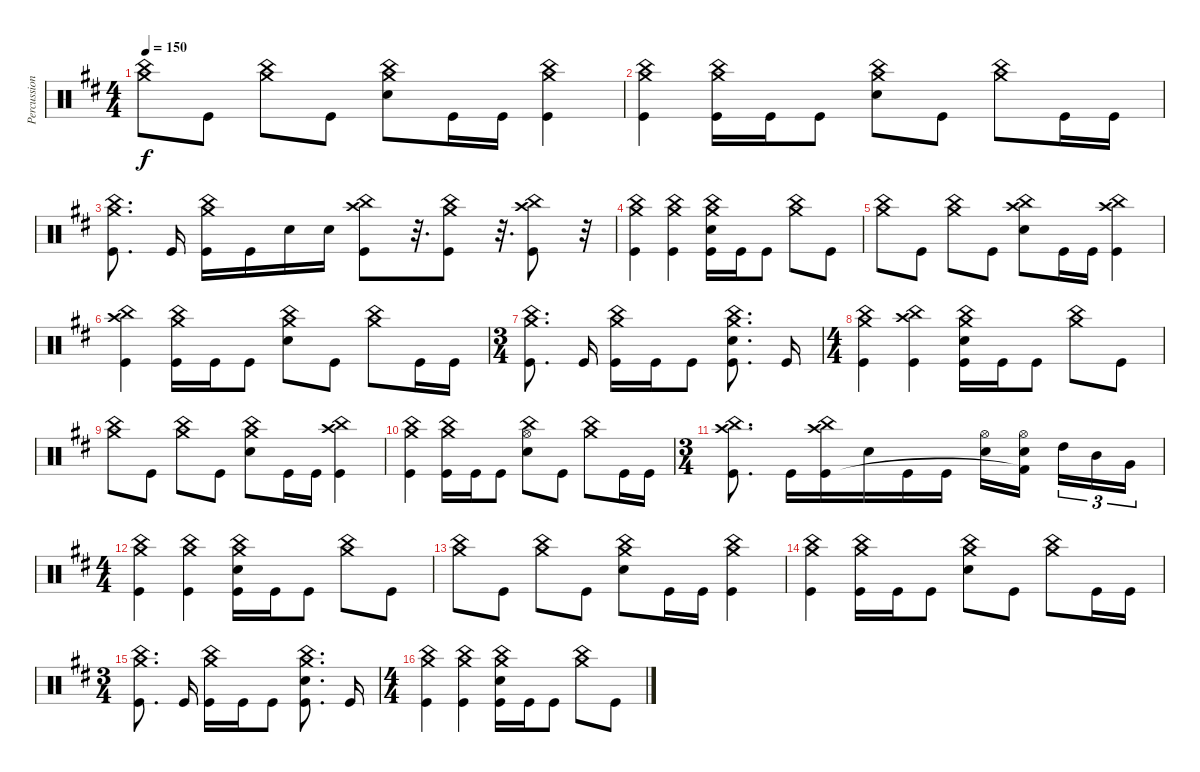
\track ("Percussion" "Percussion") {instrument percussion}
\staff {score}
\articulation defaults
\ts (4 4)
\tempo 150
\clef neutral
\ks bminor
("Crash medium (hit)" "China (hit)").8{dy f} "Kick (hit)".8 ("Crash medium (hit)" "China (hit)").8 "Kick (hit)".8 ("Crash medium (hit)" "China (hit)" "Electric Snare (hit)").8 "Kick (hit)".16 "Kick (hit)".16 ("Crash medium (hit)" "China (hit)" "Kick (hit)").4 |
("Crash medium (hit)" "China (hit)" "Kick (hit)").4 ("Crash medium (hit)" "China (hit)" "Kick (hit)").16 "Kick (hit)".16 "Kick (hit)".8 ("Crash medium (hit)" "China (hit)" "Electric Snare (hit)").8 "Kick (hit)".8 ("Crash medium (hit)" "China (hit)").8 "Kick (hit)".16 "Kick (hit)".16 |
("Crash medium (hit)" "China (hit)" "Kick (hit)").8{d beam split} "Kick (hit)".16 ("Crash medium (hit)" "China (hit)" "Kick (hit)").16 "Kick (hit)".16 "Electric Snare (hit)".16 "Electric Snare (hit)".16 ("Crash high (hit)" "China (hit)" "Kick (hit)").8 r.32{d} ("Crash medium (hit)" "China (hit)" "Kick (hit)").8 r.32{d} ("Crash high (hit)" "China (hit)" "Kick (hit)").8 r.32 |
("Crash medium (hit)" "China (hit)" "Kick (hit)").4 ("Crash medium (hit)" "China (hit)" "Kick (hit)").4 ("Crash medium (hit)" "China (hit)" "Electric Snare (hit)" "Kick (hit)").16 "Kick (hit)".16 "Kick (hit)".8 ("Crash medium (hit)" "China (hit)").8 "Kick (hit)".8 |
("Crash medium (hit)" "China (hit)").8 "Kick (hit)".8 ("Crash medium (hit)" "China (hit)").8 "Kick (hit)".8 ("Crash high (hit)" "China (hit)" "Electric Snare (hit)").8 "Kick (hit)".16 "Kick (hit)".16 ("Crash high (hit)" "China (hit)" "Kick (hit)").4 |
("Crash high (hit)" "China (hit)" "Kick (hit)").4 ("Crash medium (hit)" "China (hit)" "Kick (hit)").16 "Kick (hit)".16 "Kick (hit)".8 ("Crash medium (hit)" "China (hit)" "Electric Snare (hit)").8 "Kick (hit)".8 ("Crash medium (hit)" "China (hit)").8 "Kick (hit)".16 "Kick (hit)".16 |
\ts (3 4)
("Crash medium (hit)" "China (hit)" "Kick (hit)").8{d beam split} "Kick (hit)".16 ("Crash medium (hit)" "China (hit)" "Kick (hit)").16 "Kick (hit)".16 "Kick (hit)".8 ("Crash medium (hit)" "China (hit)" "Electric Snare (hit)" "Kick (hit)").8{d beam split} "Kick (hit)".16 |
\ts (4 4)
("Crash medium (hit)" "China (hit)" "Kick (hit)").4 ("Crash high (hit)" "China (hit)" "Kick (hit)").4 ("Crash medium (hit)" "China (hit)" "Electric Snare (hit)" "Kick (hit)").16 "Kick (hit)".16 "Kick (hit)".8 ("Crash medium (hit)" "China (hit)").8 "Kick (hit)".8 |
("Crash medium (hit)" "China (hit)").8 "Kick (hit)".8 ("Crash medium (hit)" "China (hit)").8 "Kick (hit)".8 ("Crash medium (hit)" "China (hit)" "Electric Snare (hit)").8 "Kick (hit)".16 "Kick (hit)".16 ("Crash high (hit)" "China (hit)" "Kick (hit)").4 |
("Crash medium (hit)" "China (hit)" "Kick (hit)").4 ("Crash medium (hit)" "China (hit)" "Kick (hit)").16 "Kick (hit)".16 "Kick (hit)".8 ("China (hit)" "Hi-Hat (open)" "Electric Snare (hit)").8 "Kick (hit)".8 ("China (hit)" "Crash medium (hit)").8 "Kick (hit)".16 "Kick (hit)".16 |
\ts (3 4)
("China (hit)" "Crash high (hit)" "Kick (hit)").8{d beam split} "Kick (hit)".16{beam merge} ("China (hit)" "Crash high (hit)" "Kick (hit)").16 "Electric Snare (hit)".16 "Kick (hit)".16 "Kick (hit)".16 ("Hi-Hat (open)" "Electric Snare (hit)").16 ("Hi-Hat (open)" "Electric Snare (hit)" "Kick (hit) 2"{t}).16{beam split} "High Tom (hit)".16{tu (3 2) beam merge} "Mid Tom (hit)".16{tu (3 2)} "Very Low Tom (hit)".16{tu (3 2)} |
\ts (4 4)
("Crash medium (hit)" "China (hit)" "Kick (hit)").4 ("Crash medium (hit)" "China (hit)" "Kick (hit)").4 ("Crash medium (hit)" "China (hit)" "Electric Snare (hit)" "Kick (hit)").16 "Kick (hit)".16 "Kick (hit)".8 ("Crash medium (hit)" "China (hit)").8 "Kick (hit)".8 |
("Crash medium (hit)" "China (hit)").8 "Kick (hit)".8 ("Crash medium (hit)" "China (hit)").8 "Kick (hit)".8 ("Crash medium (hit)" "China (hit)" "Electric Snare (hit)").8 "Kick (hit)".16 "Kick (hit)".16 ("Crash medium (hit)" "China (hit)" "Kick (hit)").4 |
("Crash medium (hit)" "China (hit)" "Kick (hit)").4 ("Crash medium (hit)" "China (hit)" "Kick (hit)").16 "Kick (hit)".16 "Kick (hit)".8 ("Crash medium (hit)" "China (hit)" "Electric Snare (hit)").8 "Kick (hit)".8 ("Crash medium (hit)" "China (hit)").8 "Kick (hit)".16 "Kick (hit)".16 |
\ts (3 4)
("Crash medium (hit)" "China (hit)" "Kick (hit)").8{d beam split} "Kick (hit)".16 ("Crash medium (hit)" "China (hit)" "Kick (hit)").16 "Kick (hit)".16 "Kick (hit)".8 ("Crash medium (hit)" "China (hit)" "Electric Snare (hit)" "Kick (hit)").8{d beam split} "Kick (hit)".16 |
\ts (4 4)
("Crash medium (hit)" "China (hit)" "Kick (hit)").4 ("Crash medium (hit)" "China (hit)" "Kick (hit)").4 ("Crash medium (hit)" "China (hit)" "Electric Snare (hit)" "Kick (hit)").16 "Kick (hit)".16 "Kick (hit)".8 ("Crash medium (hit)" "China (hit)").8 "Kick (hit)".8
